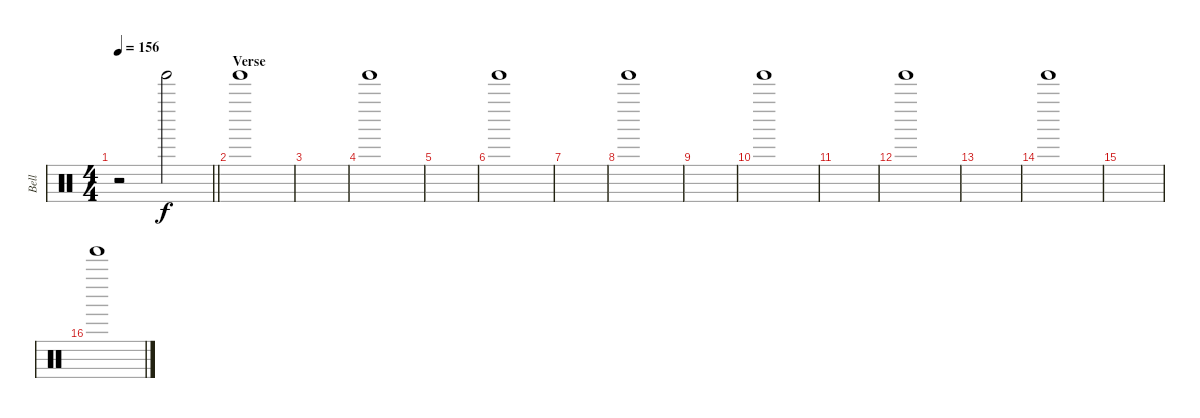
\track ("Bell" "Bell") {instrument percussion}
\staff {score}
\articulation defaults
\ts (4 4)
\tempo 156
\clef neutral
\barLineRight lightlight
\ks c
r.2{dy f} "Tinkle Bell (hit)".2 |
\section ("" "Verse")
"Tinkle Bell (hit)".1 |
|
"Tinkle Bell (hit)".1 |
|
"Tinkle Bell (hit)".1 |
|
"Tinkle Bell (hit)".1 |
|
"Tinkle Bell (hit)".1 |
|
"Tinkle Bell (hit)".1 |
|
"Tinkle Bell (hit)".1 |
|
"Tinkle Bell (hit)".1
